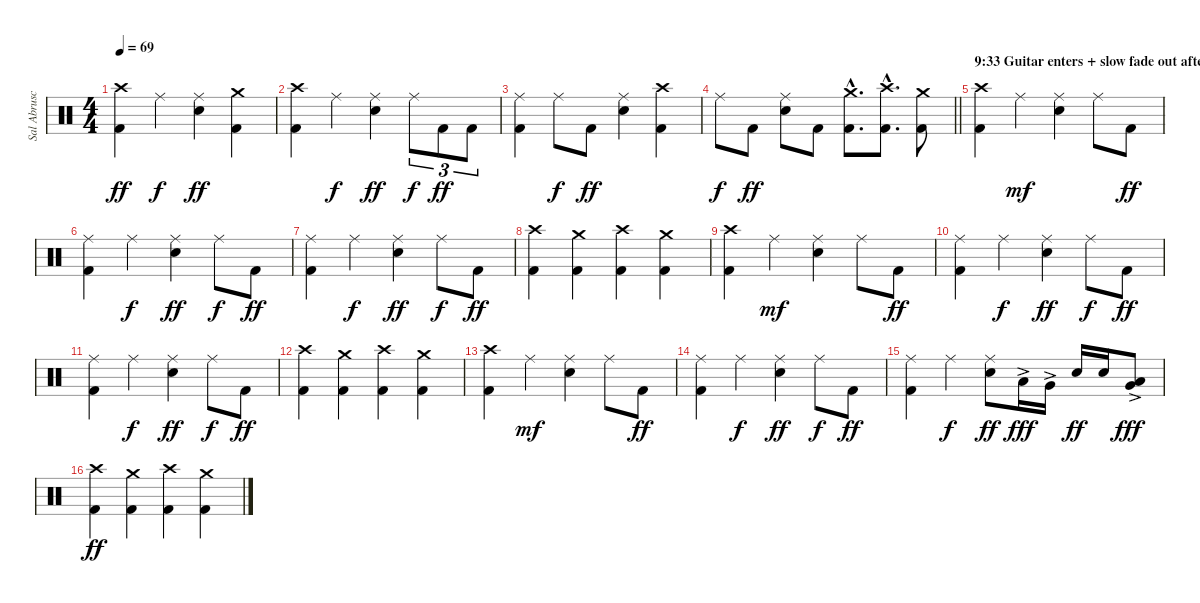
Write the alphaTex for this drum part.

\track ("Sal Abruscato (Drums)" "Sal Abrusc") {instrument percussion}
\staff {score}
\articulation defaults
\ts (4 4)
\tempo 69
\clef neutral
\ks c
("Kick (hit) 2" "Crash high (hit)").4{dy ff} "Ride (middle)".4{dy f} ("Electric Snare (hit)" "Ride (middle)").4{dy ff} ("Kick (hit) 2" "Crash medium (hit)").4 |
("Kick (hit) 2" "Crash high (hit)").4 "Ride (middle)".4{dy f} ("Electric Snare (hit)" "Ride (middle)").4{dy ff} "Ride (middle)".8{tu (3 2) dy f} "Kick (hit) 2".8{tu (3 2) dy ff} "Kick (hit) 2".8{tu (3 2)} |
("Kick (hit) 2" "Ride (middle)").4 "Ride (middle)".8{dy f} "Kick (hit) 2".8{dy ff} ("Electric Snare (hit)" "Ride (middle)").4 ("Kick (hit) 2" "Crash high (hit)").4 |
\barLineRight lightlight "Ride (middle)".8{dy f} "Kick (hit) 2".8{dy ff}
("Electric Snare (hit)" "Ride (middle)").8 "Kick (hit) 2".8 ("Kick (hit) 2"{hac} "Crash medium (hit)"{hac}).8{d} ("Kick (hit) 2"{hac} "Crash high (hit)"{hac}).8{d} ("Kick (hit) 2" "Crash medium (hit)").8 |
\section ("" "9:33 Guitar enters + slow fade out after 4th rep")
("Kick (hit) 2" "Crash high (hit)").4 "Ride (middle)".4{dy mf} ("Electric Snare (hit)" "Ride (middle)").4 "Ride (middle)".8 "Kick (hit) 2".8{dy ff} |
("Kick (hit) 2" "Ride (middle)").4 "Ride (middle)".4{dy f} ("Electric Snare (hit)" "Ride (middle)").4{dy ff} "Ride (middle)".8{dy f} "Kick (hit) 2".8{dy ff} |
("Kick (hit) 2" "Ride (middle)").4 "Ride (middle)".4{dy f} ("Electric Snare (hit)" "Ride (middle)").4{dy ff} "Ride (middle)".8{dy f} "Kick (hit) 2".8{dy ff} |
("Kick (hit) 2" "Crash high (hit)").4 ("Kick (hit) 2" "Crash medium (hit)").4 ("Kick (hit) 2" "Crash high (hit)").4 ("Kick (hit) 2" "Crash medium (hit)").4 |
("Kick (hit) 2" "Crash high (hit)").4 "Ride (middle)".4{dy mf} ("Electric Snare (hit)" "Ride (middle)").4 "Ride (middle)".8 "Kick (hit) 2".8{dy ff} |
("Kick (hit) 2" "Ride (middle)").4 "Ride (middle)".4{dy f} ("Electric Snare (hit)" "Ride (middle)").4{dy ff} "Ride (middle)".8{dy f} "Kick (hit) 2".8{dy ff} |
("Kick (hit) 2" "Ride (middle)").4 "Ride (middle)".4{dy f} ("Electric Snare (hit)" "Ride (middle)").4{dy ff} "Ride (middle)".8{dy f} "Kick (hit) 2".8{dy ff} |
("Kick (hit) 2" "Crash high (hit)").4 ("Kick (hit) 2" "Crash medium (hit)").4 ("Kick (hit) 2" "Crash high (hit)").4 ("Kick (hit) 2" "Crash medium (hit)").4 |
("Kick (hit) 2" "Crash high (hit)").4 "Ride (middle)".4{dy mf} ("Electric Snare (hit)" "Ride (middle)").4 "Ride (middle)".8 "Kick (hit) 2".8{dy ff} |
("Kick (hit) 2" "Ride (middle)").4 "Ride (middle)".4{dy f} ("Electric Snare (hit)" "Ride (middle)").4{dy ff} "Ride (middle)".8{dy f} "Kick (hit) 2".8{dy ff} |
("Kick (hit) 2" "Ride (middle)").4 "Ride (middle)".4{dy f} ("Electric Snare (hit)" "Ride (middle)").8{dy ff} "Low Tom (hit)"{ac}.16{dy fff} "Very Low Tom (hit)"{ac}.16 "Electric Snare (hit)".16{dy ff} "Electric Snare (hit)".16 ("Low Tom (hit)"{ac} "Very Low Tom (hit)"{ac}).8{dy fff} |
("Kick (hit) 2" "Crash high (hit)").4{dy ff} ("Kick (hit) 2" "Crash medium (hit)").4 ("Kick (hit) 2" "Crash high (hit)").4 ("Kick (hit) 2" "Crash medium (hit)").4
